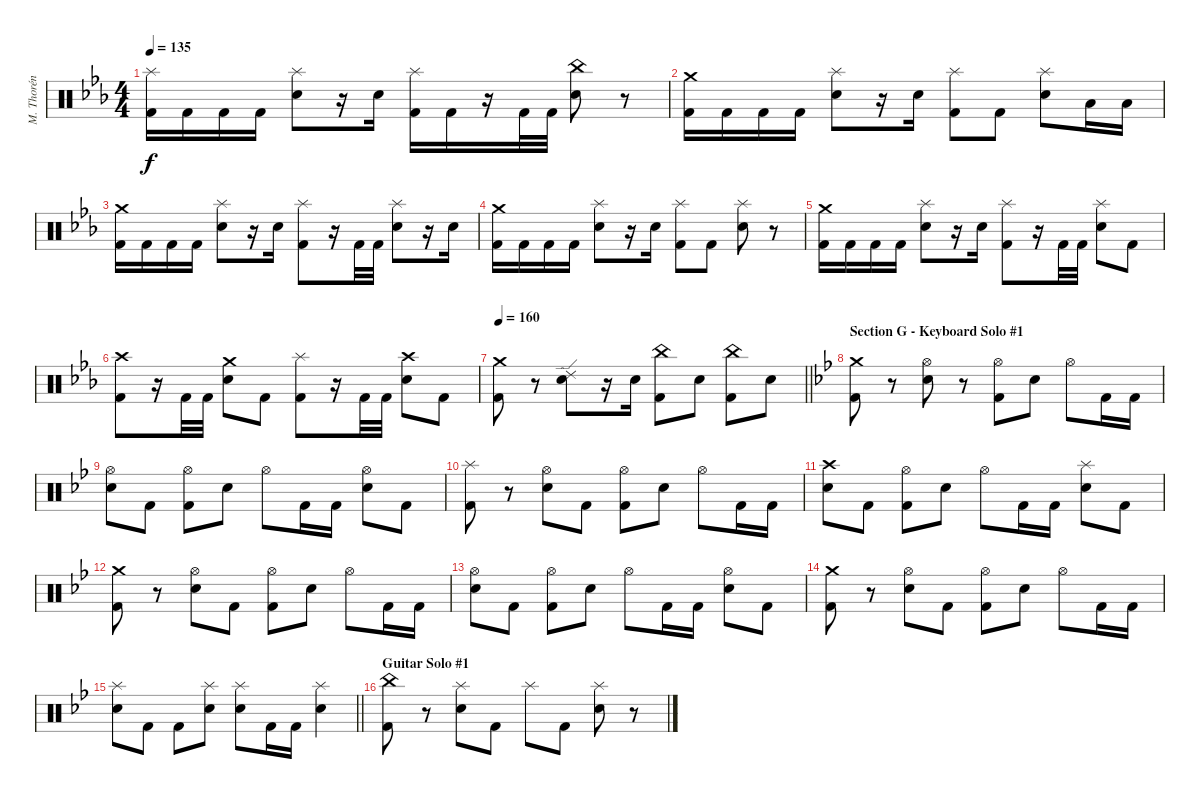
\track ("M. Thorén (Drums)" "M. Thorén ") {instrument percussion}
\staff {score}
\articulation defaults
\ts (4 4)
\tempo 135
\clef neutral
\ks cminor
("Splash (hit)" "Kick (hit) 2").16{dy f} "Kick (hit) 2".16 "Kick (hit) 2".16 "Kick (hit) 2".16 ("Splash (hit)" "Electric Snare (hit)").8 r.16 "Electric Snare (hit)".16 ("Splash (hit)" "Kick (hit) 2").16 "Kick (hit) 2".16 r.16 "Kick (hit) 2".32 "Kick (hit) 2".32 ("China (hit)" "Electric Snare (hit)").8 r.8 |
("Crash medium (hit)" "Kick (hit) 2").16 "Kick (hit) 2".16 "Kick (hit) 2".16 "Kick (hit) 2".16 ("Splash (hit)" "Electric Snare (hit)").8 r.16 "Electric Snare (hit)".16 ("Splash (hit)" "Kick (hit) 2").8 "Kick (hit) 2".8 ("Splash (hit)" "Electric Snare (hit)").8 "Low Tom (hit)".16 "Low Tom (hit)".16 |
("Crash medium (hit)" "Kick (hit) 2").16 "Kick (hit) 2".16 "Kick (hit) 2".16 "Kick (hit) 2".16 ("Splash (hit)" "Electric Snare (hit)").8 r.16 "Electric Snare (hit)".16 ("Splash (hit)" "Kick (hit) 2").8 r.16 "Kick (hit) 2".32 "Kick (hit) 2".32 ("Splash (hit)" "Electric Snare (hit)").8 r.16 "Electric Snare (hit)".16 |
("Crash medium (hit)" "Kick (hit) 2").16 "Kick (hit) 2".16 "Kick (hit) 2".16 "Kick (hit) 2".16 ("Splash (hit)" "Electric Snare (hit)").8 r.16 "Electric Snare (hit)".16 ("Splash (hit)" "Kick (hit) 2").8 "Kick (hit) 2".8 ("Splash (hit)" "Electric Snare (hit)").8 r.8 |
("Crash medium (hit)" "Kick (hit) 2").16 "Kick (hit) 2".16 "Kick (hit) 2".16 "Kick (hit) 2".16 ("Splash (hit)" "Electric Snare (hit)").8 r.16 "Electric Snare (hit)".16 ("Splash (hit)" "Kick (hit) 2").8 r.16 "Kick (hit) 2".32 "Kick (hit) 2".32 ("Splash (hit)" "Electric Snare (hit)").8 "Kick (hit) 2".8 |
("Crash high (hit)" "Kick (hit) 2").8 r.16 "Kick (hit) 2".32 "Kick (hit) 2".32 ("Crash medium (hit)" "Electric Snare (hit)").8 "Kick (hit) 2".8 ("Splash (hit)" "Kick (hit) 2").8 r.16 "Kick (hit) 2".32 "Kick (hit) 2".32 ("Crash high (hit)" "Electric Snare (hit)").8 "Kick (hit) 2".8 |
\tempo 160
\barLineRight lightlight
("Crash medium (hit)" "Kick (hit) 2").8 r.8 ("Ride (edge) 2" "Electric Snare (hit)").8 r.16 "Electric Snare (hit)".16 ("China (hit)" "Kick (hit) 2").8 "Electric Snare (hit)".8 ("China (hit)" "Kick (hit) 2").8 "Electric Snare (hit)".8 |
\section ("" "Section G - Keyboard Solo #1")
\ks gminor
("Crash medium (hit)" "Kick (hit) 2").8 r.8 ("Hi-Hat (open)" "Electric Snare (hit)").8 r.8 ("Hi-Hat (open)" "Kick (hit) 2").8 "Electric Snare (hit)".8 "Hi-Hat (open)".8 "Kick (hit) 2".16 "Kick (hit) 2".16 |
("Hi-Hat (open)" "Electric Snare (hit)").8 "Kick (hit) 2".8 ("Hi-Hat (open)" "Kick (hit) 2").8 "Electric Snare (hit)".8 "Hi-Hat (open)".8 "Kick (hit) 2".16 "Kick (hit) 2".16 ("Hi-Hat (open)" "Electric Snare (hit)").8 "Kick (hit) 2".8 |
("Splash (hit)" "Kick (hit) 2").8 r.8 ("Hi-Hat (open)" "Electric Snare (hit)").8 "Kick (hit) 2".8 ("Hi-Hat (open)" "Kick (hit) 2").8 "Electric Snare (hit)".8 "Hi-Hat (open)".8 "Kick (hit) 2".16 "Kick (hit) 2".16 |
("Crash high (hit)" "Electric Snare (hit)").8 "Kick (hit) 2".8 ("Hi-Hat (open)" "Kick (hit) 2").8 "Electric Snare (hit)".8 "Hi-Hat (open)".8 "Kick (hit) 2".16 "Kick (hit) 2".16 ("Splash (hit)" "Electric Snare (hit)").8 "Kick (hit) 2".8 |
("Crash medium (hit)" "Kick (hit) 2").8 r.8 ("Hi-Hat (open)" "Electric Snare (hit)").8 "Kick (hit) 2".8 ("Hi-Hat (open)" "Kick (hit) 2").8 "Electric Snare (hit)".8 "Hi-Hat (open)".8 "Kick (hit) 2".16 "Kick (hit) 2".16 |
("Hi-Hat (open)" "Electric Snare (hit)").8 "Kick (hit) 2".8 ("Hi-Hat (open)" "Kick (hit) 2").8 "Electric Snare (hit)".8 "Hi-Hat (open)".8 "Kick (hit) 2".16 "Kick (hit) 2".16 ("Hi-Hat (open)" "Electric Snare (hit)").8 "Kick (hit) 2".8 |
("Crash medium (hit)" "Kick (hit) 2").8 r.8 ("Hi-Hat (open)" "Electric Snare (hit)").8 "Kick (hit) 2".8 ("Hi-Hat (open)" "Kick (hit) 2").8 "Electric Snare (hit)".8 "Hi-Hat (open)".8 "Kick (hit) 2".16 "Kick (hit) 2".16 |
\barLineRight lightlight
("Splash (hit)" "Electric Snare (hit)").8 "Kick (hit) 2".8 "Kick (hit) 2".8 ("Splash (hit)" "Electric Snare (hit)").8 ("Splash (hit)" "Electric Snare (hit)").8 "Kick (hit) 2".16 "Kick (hit) 2".16 ("Splash (hit)" "Electric Snare (hit)").4 |
\section ("" "Guitar Solo #1")
("China (hit)" "Kick (hit) 2").8 r.8 ("Splash (hit)" "Electric Snare (hit)").8 "Kick (hit) 2".8 "Splash (hit)".8 "Kick (hit) 2".8 ("Splash (hit)" "Electric Snare (hit)").8 r.8
